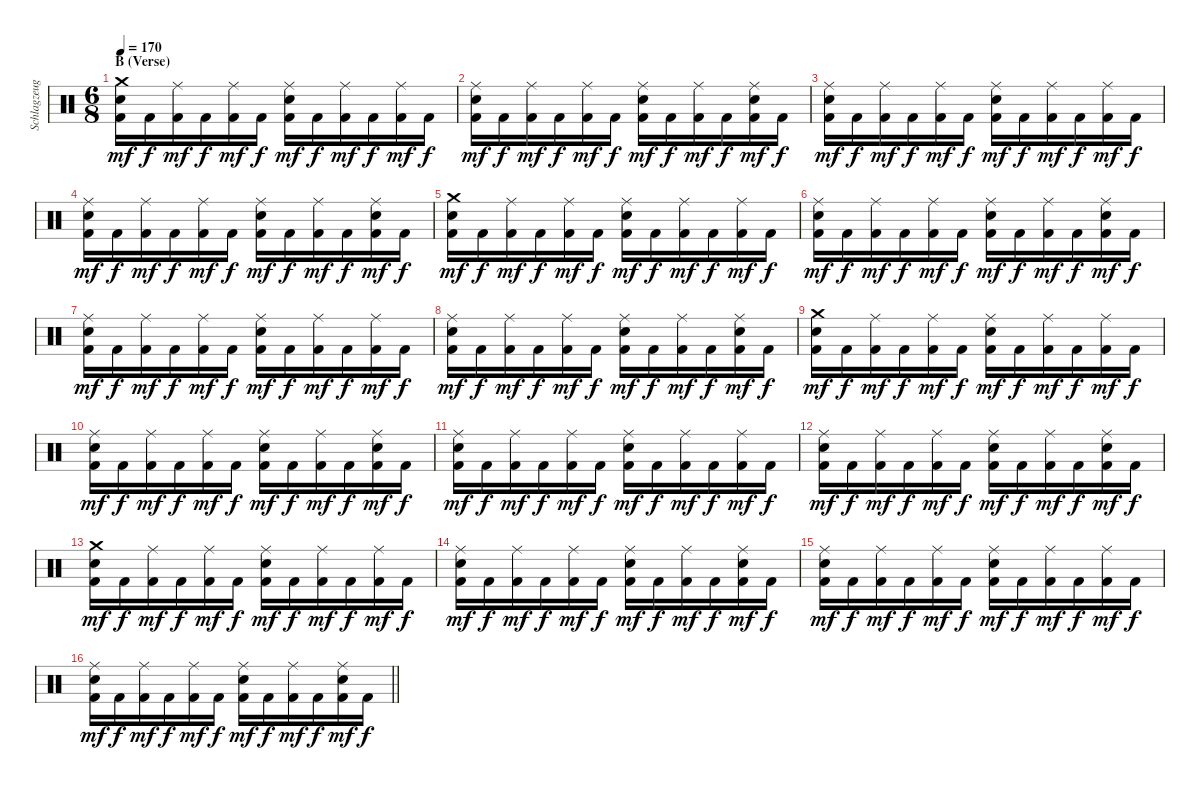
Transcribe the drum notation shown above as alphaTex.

\track ("Schlagzeug" "Schlagzeug") {instrument percussion}
\staff {score}
\articulation defaults
\ts (6 8)
\section ("" "B (Verse)")
\tempo 170
\clef neutral
\ks c
("Crash medium (hit)" "Electric Snare (hit)" "Kick (hit) 2").16{dy mf} "Kick (hit) 2".16{dy f} ("Ride (middle)" "Kick (hit) 2").16{dy mf} "Kick (hit) 2".16{dy f} ("Ride (middle)" "Kick (hit) 2").16{dy mf} "Kick (hit) 2".16{dy f} ("Ride (middle)" "Electric Snare (hit)" "Kick (hit) 2").16{dy mf} "Kick (hit) 2".16{dy f} ("Ride (middle)" "Kick (hit) 2").16{dy mf} "Kick (hit) 2".16{dy f} ("Ride (middle)" "Kick (hit) 2").16{dy mf} "Kick (hit) 2".16{dy f} |
("Ride (middle)" "Electric Snare (hit)" "Kick (hit) 2").16{dy mf} "Kick (hit) 2".16{dy f} ("Ride (middle)" "Kick (hit) 2").16{dy mf} "Kick (hit) 2".16{dy f} ("Ride (middle)" "Kick (hit) 2").16{dy mf} "Kick (hit) 2".16{dy f} ("Ride (middle)" "Electric Snare (hit)" "Kick (hit) 2").16{dy mf} "Kick (hit) 2".16{dy f} ("Ride (middle)" "Kick (hit) 2").16{dy mf} "Kick (hit) 2".16{dy f} ("Ride (middle)" "Electric Snare (hit)" "Kick (hit) 2").16{dy mf} "Kick (hit) 2".16{dy f} |
("Ride (middle)" "Electric Snare (hit)" "Kick (hit) 2").16{dy mf} "Kick (hit) 2".16{dy f} ("Ride (middle)" "Kick (hit) 2").16{dy mf} "Kick (hit) 2".16{dy f} ("Ride (middle)" "Kick (hit) 2").16{dy mf} "Kick (hit) 2".16{dy f} ("Ride (middle)" "Electric Snare (hit)" "Kick (hit) 2").16{dy mf} "Kick (hit) 2".16{dy f} ("Ride (middle)" "Kick (hit) 2").16{dy mf} "Kick (hit) 2".16{dy f} ("Ride (middle)" "Kick (hit) 2").16{dy mf} "Kick (hit) 2".16{dy f} |
("Ride (middle)" "Electric Snare (hit)" "Kick (hit) 2").16{dy mf} "Kick (hit) 2".16{dy f} ("Ride (middle)" "Kick (hit) 2").16{dy mf} "Kick (hit) 2".16{dy f} ("Ride (middle)" "Kick (hit) 2").16{dy mf} "Kick (hit) 2".16{dy f} ("Ride (middle)" "Electric Snare (hit)" "Kick (hit) 2").16{dy mf} "Kick (hit) 2".16{dy f} ("Ride (middle)" "Kick (hit) 2").16{dy mf} "Kick (hit) 2".16{dy f} ("Ride (middle)" "Electric Snare (hit)" "Kick (hit) 2").16{dy mf} "Kick (hit) 2".16{dy f} |
("Crash medium (hit)" "Electric Snare (hit)" "Kick (hit) 2").16{dy mf} "Kick (hit) 2".16{dy f} ("Ride (middle)" "Kick (hit) 2").16{dy mf} "Kick (hit) 2".16{dy f} ("Ride (middle)" "Kick (hit) 2").16{dy mf} "Kick (hit) 2".16{dy f} ("Ride (middle)" "Electric Snare (hit)" "Kick (hit) 2").16{dy mf} "Kick (hit) 2".16{dy f} ("Ride (middle)" "Kick (hit) 2").16{dy mf} "Kick (hit) 2".16{dy f} ("Ride (middle)" "Kick (hit) 2").16{dy mf} "Kick (hit) 2".16{dy f} |
("Ride (middle)" "Electric Snare (hit)" "Kick (hit) 2").16{dy mf} "Kick (hit) 2".16{dy f} ("Ride (middle)" "Kick (hit) 2").16{dy mf} "Kick (hit) 2".16{dy f} ("Ride (middle)" "Kick (hit) 2").16{dy mf} "Kick (hit) 2".16{dy f} ("Ride (middle)" "Electric Snare (hit)" "Kick (hit) 2").16{dy mf} "Kick (hit) 2".16{dy f} ("Ride (middle)" "Kick (hit) 2").16{dy mf} "Kick (hit) 2".16{dy f} ("Ride (middle)" "Electric Snare (hit)" "Kick (hit) 2").16{dy mf} "Kick (hit) 2".16{dy f} |
("Ride (middle)" "Electric Snare (hit)" "Kick (hit) 2").16{dy mf} "Kick (hit) 2".16{dy f} ("Ride (middle)" "Kick (hit) 2").16{dy mf} "Kick (hit) 2".16{dy f} ("Ride (middle)" "Kick (hit) 2").16{dy mf} "Kick (hit) 2".16{dy f} ("Ride (middle)" "Electric Snare (hit)" "Kick (hit) 2").16{dy mf} "Kick (hit) 2".16{dy f} ("Ride (middle)" "Kick (hit) 2").16{dy mf} "Kick (hit) 2".16{dy f} ("Ride (middle)" "Kick (hit) 2").16{dy mf} "Kick (hit) 2".16{dy f} |
("Ride (middle)" "Electric Snare (hit)" "Kick (hit) 2").16{dy mf} "Kick (hit) 2".16{dy f} ("Ride (middle)" "Kick (hit) 2").16{dy mf} "Kick (hit) 2".16{dy f} ("Ride (middle)" "Kick (hit) 2").16{dy mf} "Kick (hit) 2".16{dy f} ("Ride (middle)" "Electric Snare (hit)" "Kick (hit) 2").16{dy mf} "Kick (hit) 2".16{dy f} ("Ride (middle)" "Kick (hit) 2").16{dy mf} "Kick (hit) 2".16{dy f} ("Ride (middle)" "Electric Snare (hit)" "Kick (hit) 2").16{dy mf} "Kick (hit) 2".16{dy f} |
("Crash medium (hit)" "Electric Snare (hit)" "Kick (hit) 2").16{dy mf} "Kick (hit) 2".16{dy f} ("Ride (middle)" "Kick (hit) 2").16{dy mf} "Kick (hit) 2".16{dy f} ("Ride (middle)" "Kick (hit) 2").16{dy mf} "Kick (hit) 2".16{dy f} ("Ride (middle)" "Electric Snare (hit)" "Kick (hit) 2").16{dy mf} "Kick (hit) 2".16{dy f} ("Ride (middle)" "Kick (hit) 2").16{dy mf} "Kick (hit) 2".16{dy f} ("Ride (middle)" "Kick (hit) 2").16{dy mf} "Kick (hit) 2".16{dy f} |
("Ride (middle)" "Electric Snare (hit)" "Kick (hit) 2").16{dy mf} "Kick (hit) 2".16{dy f} ("Ride (middle)" "Kick (hit) 2").16{dy mf} "Kick (hit) 2".16{dy f} ("Ride (middle)" "Kick (hit) 2").16{dy mf} "Kick (hit) 2".16{dy f} ("Ride (middle)" "Electric Snare (hit)" "Kick (hit) 2").16{dy mf} "Kick (hit) 2".16{dy f} ("Ride (middle)" "Kick (hit) 2").16{dy mf} "Kick (hit) 2".16{dy f} ("Ride (middle)" "Electric Snare (hit)" "Kick (hit) 2").16{dy mf} "Kick (hit) 2".16{dy f} |
("Ride (middle)" "Electric Snare (hit)" "Kick (hit) 2").16{dy mf} "Kick (hit) 2".16{dy f} ("Ride (middle)" "Kick (hit) 2").16{dy mf} "Kick (hit) 2".16{dy f} ("Ride (middle)" "Kick (hit) 2").16{dy mf} "Kick (hit) 2".16{dy f} ("Ride (middle)" "Electric Snare (hit)" "Kick (hit) 2").16{dy mf} "Kick (hit) 2".16{dy f} ("Ride (middle)" "Kick (hit) 2").16{dy mf} "Kick (hit) 2".16{dy f} ("Ride (middle)" "Kick (hit) 2").16{dy mf} "Kick (hit) 2".16{dy f} |
("Ride (middle)" "Electric Snare (hit)" "Kick (hit) 2").16{dy mf} "Kick (hit) 2".16{dy f} ("Ride (middle)" "Kick (hit) 2").16{dy mf} "Kick (hit) 2".16{dy f} ("Ride (middle)" "Kick (hit) 2").16{dy mf} "Kick (hit) 2".16{dy f} ("Ride (middle)" "Electric Snare (hit)" "Kick (hit) 2").16{dy mf} "Kick (hit) 2".16{dy f} ("Ride (middle)" "Kick (hit) 2").16{dy mf} "Kick (hit) 2".16{dy f} ("Ride (middle)" "Electric Snare (hit)" "Kick (hit) 2").16{dy mf} "Kick (hit) 2".16{dy f} |
("Crash medium (hit)" "Electric Snare (hit)" "Kick (hit) 2").16{dy mf} "Kick (hit) 2".16{dy f} ("Ride (middle)" "Kick (hit) 2").16{dy mf} "Kick (hit) 2".16{dy f} ("Ride (middle)" "Kick (hit) 2").16{dy mf} "Kick (hit) 2".16{dy f} ("Ride (middle)" "Electric Snare (hit)" "Kick (hit) 2").16{dy mf} "Kick (hit) 2".16{dy f} ("Ride (middle)" "Kick (hit) 2").16{dy mf} "Kick (hit) 2".16{dy f} ("Ride (middle)" "Kick (hit) 2").16{dy mf} "Kick (hit) 2".16{dy f} |
("Ride (middle)" "Electric Snare (hit)" "Kick (hit) 2").16{dy mf} "Kick (hit) 2".16{dy f} ("Ride (middle)" "Kick (hit) 2").16{dy mf} "Kick (hit) 2".16{dy f} ("Ride (middle)" "Kick (hit) 2").16{dy mf} "Kick (hit) 2".16{dy f} ("Ride (middle)" "Electric Snare (hit)" "Kick (hit) 2").16{dy mf} "Kick (hit) 2".16{dy f} ("Ride (middle)" "Kick (hit) 2").16{dy mf} "Kick (hit) 2".16{dy f} ("Ride (middle)" "Electric Snare (hit)" "Kick (hit) 2").16{dy mf} "Kick (hit) 2".16{dy f} |
("Ride (middle)" "Electric Snare (hit)" "Kick (hit) 2").16{dy mf} "Kick (hit) 2".16{dy f} ("Ride (middle)" "Kick (hit) 2").16{dy mf} "Kick (hit) 2".16{dy f} ("Ride (middle)" "Kick (hit) 2").16{dy mf} "Kick (hit) 2".16{dy f} ("Ride (middle)" "Electric Snare (hit)" "Kick (hit) 2").16{dy mf} "Kick (hit) 2".16{dy f} ("Ride (middle)" "Kick (hit) 2").16{dy mf} "Kick (hit) 2".16{dy f} ("Ride (middle)" "Kick (hit) 2").16{dy mf} "Kick (hit) 2".16{dy f} |
\barLineRight lightlight
("Ride (middle)" "Electric Snare (hit)" "Kick (hit) 2").16{dy mf} "Kick (hit) 2".16{dy f} ("Ride (middle)" "Kick (hit) 2").16{dy mf} "Kick (hit) 2".16{dy f} ("Ride (middle)" "Kick (hit) 2").16{dy mf} "Kick (hit) 2".16{dy f} ("Ride (middle)" "Electric Snare (hit)" "Kick (hit) 2").16{dy mf} "Kick (hit) 2".16{dy f} ("Ride (middle)" "Kick (hit) 2").16{dy mf} "Kick (hit) 2".16{dy f} ("Ride (middle)" "Electric Snare (hit)" "Kick (hit) 2").16{dy mf} "Kick (hit) 2".16{dy f}
